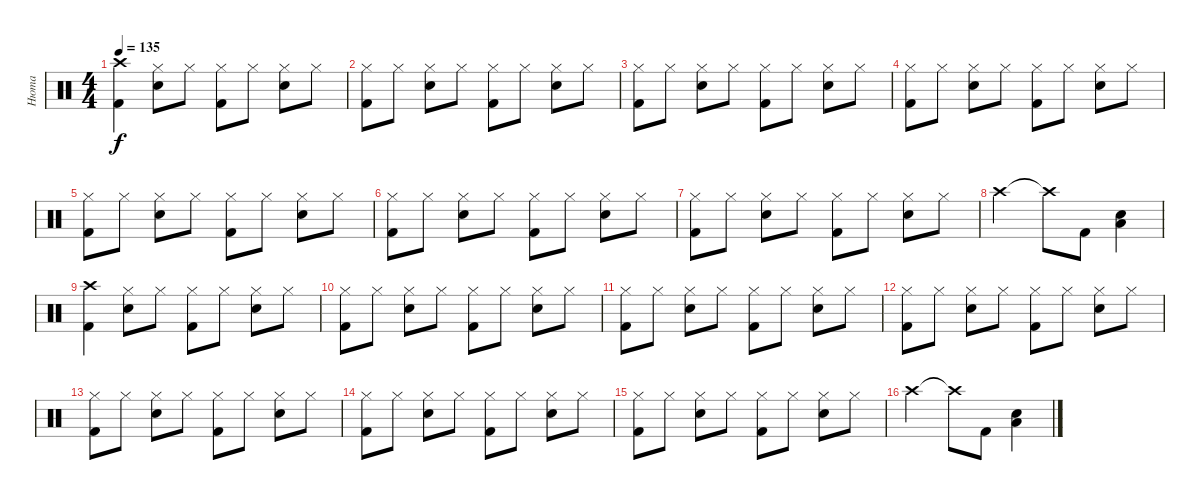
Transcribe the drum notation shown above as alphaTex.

\track ("Нюта" "Нюта") {instrument percussion}
\staff {score}
\articulation defaults
\ts (4 4)
\tempo 135
\clef neutral
\ks c
("Crash high (hit)" "Kick (hit) 2").4{dy f} ("Hi-Hat (closed)" "Electric Snare (hit)").8 "Hi-Hat (closed)".8 ("Hi-Hat (closed)" "Kick (hit) 2").8 "Hi-Hat (closed)".8 ("Hi-Hat (closed)" "Electric Snare (hit)").8 "Hi-Hat (closed)".8 |
("Hi-Hat (closed)" "Kick (hit) 2").8 "Hi-Hat (closed)".8 ("Hi-Hat (closed)" "Electric Snare (hit)").8 "Hi-Hat (closed)".8 ("Hi-Hat (closed)" "Kick (hit) 2").8 "Hi-Hat (closed)".8 ("Hi-Hat (closed)" "Electric Snare (hit)").8 "Hi-Hat (closed)".8 |
("Hi-Hat (closed)" "Kick (hit) 2").8 "Hi-Hat (closed)".8 ("Hi-Hat (closed)" "Electric Snare (hit)").8 "Hi-Hat (closed)".8 ("Hi-Hat (closed)" "Kick (hit) 2").8 "Hi-Hat (closed)".8 ("Hi-Hat (closed)" "Electric Snare (hit)").8 "Hi-Hat (closed)".8 |
("Hi-Hat (closed)" "Kick (hit) 2").8 "Hi-Hat (closed)".8 ("Hi-Hat (closed)" "Electric Snare (hit)").8 "Hi-Hat (closed)".8 ("Hi-Hat (closed)" "Kick (hit) 2").8 "Hi-Hat (closed)".8 ("Hi-Hat (closed)" "Electric Snare (hit)").8 "Hi-Hat (closed)".8 |
("Hi-Hat (closed)" "Kick (hit) 2").8 "Hi-Hat (closed)".8 ("Hi-Hat (closed)" "Electric Snare (hit)").8 "Hi-Hat (closed)".8 ("Hi-Hat (closed)" "Kick (hit) 2").8 "Hi-Hat (closed)".8 ("Hi-Hat (closed)" "Electric Snare (hit)").8 "Hi-Hat (closed)".8 |
("Hi-Hat (closed)" "Kick (hit) 2").8 "Hi-Hat (closed)".8 ("Hi-Hat (closed)" "Electric Snare (hit)").8 "Hi-Hat (closed)".8 ("Hi-Hat (closed)" "Kick (hit) 2").8 "Hi-Hat (closed)".8 ("Hi-Hat (closed)" "Electric Snare (hit)").8 "Hi-Hat (closed)".8 |
("Hi-Hat (closed)" "Kick (hit) 2").8 "Hi-Hat (closed)".8 ("Hi-Hat (closed)" "Electric Snare (hit)").8 "Hi-Hat (closed)".8 ("Hi-Hat (closed)" "Kick (hit) 2").8 "Hi-Hat (closed)".8 ("Hi-Hat (closed)" "Electric Snare (hit)").8 "Hi-Hat (closed)".8 |
"Crash high (hit)".2 "Crash high (hit)"{t}.8 "Kick (hit) 2".8 ("Electric Snare (hit)" "Low Tom (hit)").4 |
("Crash high (hit)" "Kick (hit) 2").4 ("Hi-Hat (closed)" "Electric Snare (hit)").8 "Hi-Hat (closed)".8 ("Hi-Hat (closed)" "Kick (hit) 2").8 "Hi-Hat (closed)".8 ("Hi-Hat (closed)" "Electric Snare (hit)").8 "Hi-Hat (closed)".8 |
("Hi-Hat (closed)" "Kick (hit) 2").8 "Hi-Hat (closed)".8 ("Hi-Hat (closed)" "Electric Snare (hit)").8 "Hi-Hat (closed)".8 ("Hi-Hat (closed)" "Kick (hit) 2").8 "Hi-Hat (closed)".8 ("Hi-Hat (closed)" "Electric Snare (hit)").8 "Hi-Hat (closed)".8 |
("Hi-Hat (closed)" "Kick (hit) 2").8 "Hi-Hat (closed)".8 ("Hi-Hat (closed)" "Electric Snare (hit)").8 "Hi-Hat (closed)".8 ("Hi-Hat (closed)" "Kick (hit) 2").8 "Hi-Hat (closed)".8 ("Hi-Hat (closed)" "Electric Snare (hit)").8 "Hi-Hat (closed)".8 |
("Hi-Hat (closed)" "Kick (hit) 2").8 "Hi-Hat (closed)".8 ("Hi-Hat (closed)" "Electric Snare (hit)").8 "Hi-Hat (closed)".8 ("Hi-Hat (closed)" "Kick (hit) 2").8 "Hi-Hat (closed)".8 ("Hi-Hat (closed)" "Electric Snare (hit)").8 "Hi-Hat (closed)".8 |
("Hi-Hat (closed)" "Kick (hit) 2").8 "Hi-Hat (closed)".8 ("Hi-Hat (closed)" "Electric Snare (hit)").8 "Hi-Hat (closed)".8 ("Hi-Hat (closed)" "Kick (hit) 2").8 "Hi-Hat (closed)".8 ("Hi-Hat (closed)" "Electric Snare (hit)").8 "Hi-Hat (closed)".8 |
("Hi-Hat (closed)" "Kick (hit) 2").8 "Hi-Hat (closed)".8 ("Hi-Hat (closed)" "Electric Snare (hit)").8 "Hi-Hat (closed)".8 ("Hi-Hat (closed)" "Kick (hit) 2").8 "Hi-Hat (closed)".8 ("Hi-Hat (closed)" "Electric Snare (hit)").8 "Hi-Hat (closed)".8 |
("Hi-Hat (closed)" "Kick (hit) 2").8 "Hi-Hat (closed)".8 ("Hi-Hat (closed)" "Electric Snare (hit)").8 "Hi-Hat (closed)".8 ("Hi-Hat (closed)" "Kick (hit) 2").8 "Hi-Hat (closed)".8 ("Hi-Hat (closed)" "Electric Snare (hit)").8 "Hi-Hat (closed)".8 |
"Crash high (hit)".2 "Crash high (hit)"{t}.8 "Kick (hit) 2".8 ("Electric Snare (hit)" "Low Tom (hit)").4
